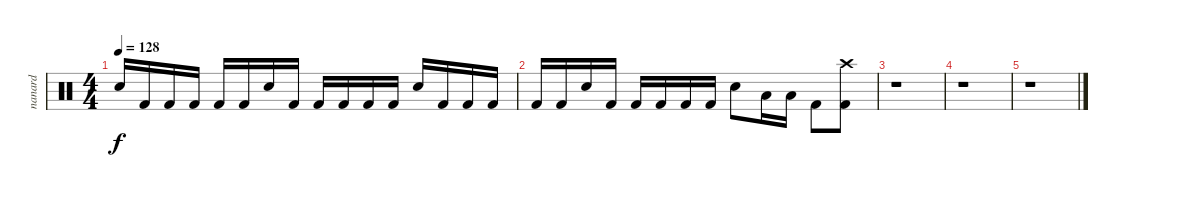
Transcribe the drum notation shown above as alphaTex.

\track ("nanard" "nanard") {instrument percussion}
\staff {score}
\articulation defaults
\ts (4 4)
\tempo 128
\clef neutral
\ks c "Electric Snare (hit)".16{dy f} "Kick (hit) 2".16 "Kick (hit) 2".16 "Kick (hit) 2".16 "Kick (hit) 2".16 "Kick (hit) 2".16 "Electric Snare (hit)".16 "Kick (hit) 2".16 "Kick (hit) 2".16 "Kick (hit) 2".16 "Kick (hit) 2".16 "Kick (hit) 2".16 "Electric Snare (hit)".16 "Kick (hit) 2".16 "Kick (hit) 2".16 "Kick (hit) 2".16
|
"Kick (hit) 2".16 "Kick (hit) 2".16 "Electric Snare (hit)".16 "Kick (hit) 2".16 "Kick (hit) 2".16 "Kick (hit) 2".16 "Kick (hit) 2".16 "Kick (hit) 2".16 "Electric Snare (hit)".8 "Low Tom (hit)".16 "Low Tom (hit)".16 "Kick (hit) 2".8 ("Crash high (hit)" "Kick (hit) 2").8 |
r.1 |
r.1 |
r.1
